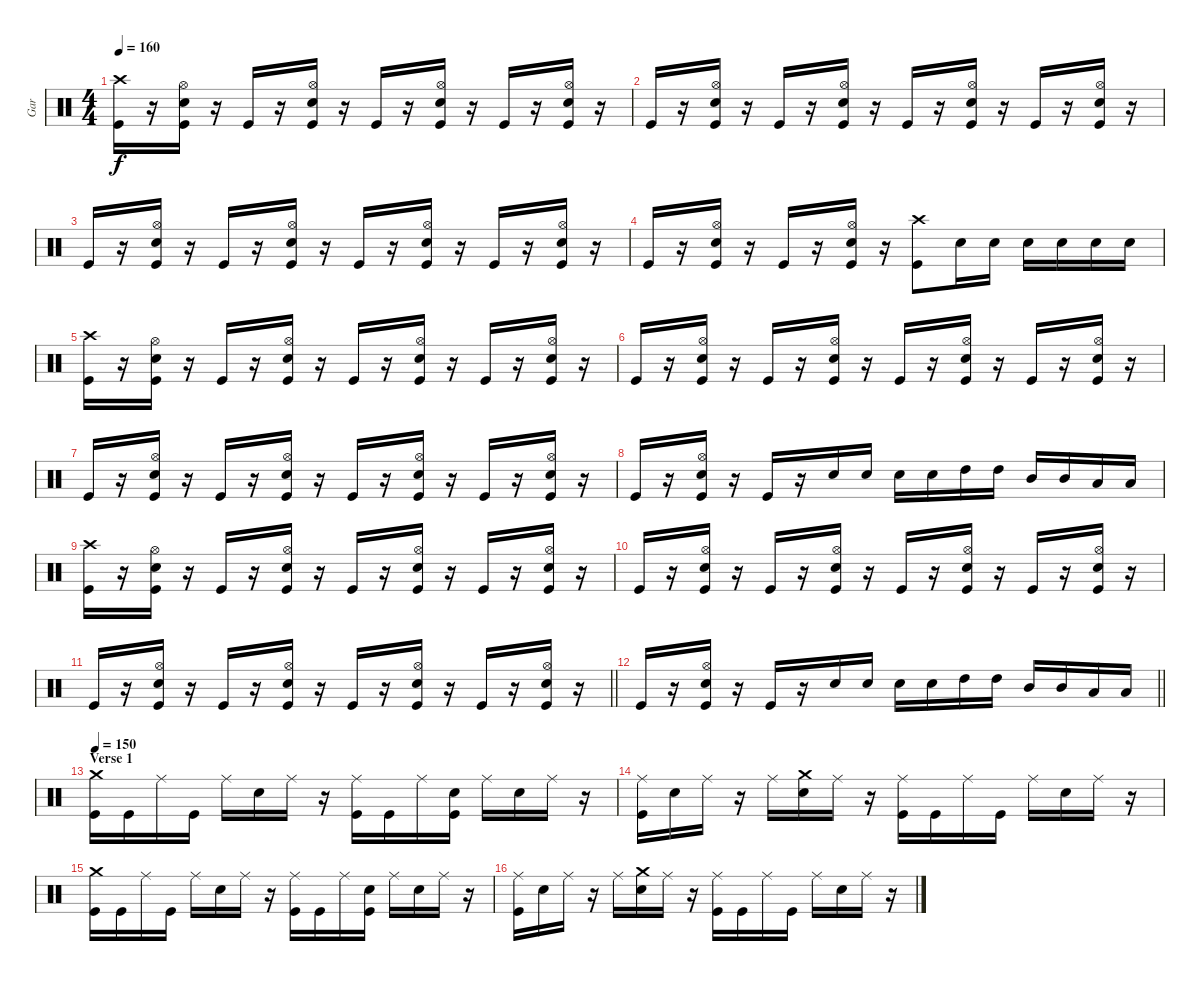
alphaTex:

\track ("Gar" "Gar") {instrument percussion}
\staff {score}
\articulation defaults
\ts (4 4)
\tempo 160
\clef neutral
\ks c
("Crash high (hit)" "Kick (hit)").16{dy f} r.16 ("Hi-Hat (open)" "Snare (hit) 2" "Kick (hit)").16 r.16 "Kick (hit)".16 r.16 ("Hi-Hat (open)" "Snare (hit) 2" "Kick (hit)").16 r.16 "Kick (hit)".16 r.16 ("Hi-Hat (open)" "Snare (hit) 2" "Kick (hit)").16 r.16 "Kick (hit)".16 r.16 ("Hi-Hat (open)" "Snare (hit) 2" "Kick (hit)").16 r.16 |
"Kick (hit)".16 r.16 ("Hi-Hat (open)" "Snare (hit) 2" "Kick (hit)").16 r.16 "Kick (hit)".16 r.16 ("Hi-Hat (open)" "Snare (hit) 2" "Kick (hit)").16 r.16 "Kick (hit)".16 r.16 ("Hi-Hat (open)" "Snare (hit) 2" "Kick (hit)").16 r.16 "Kick (hit)".16 r.16 ("Hi-Hat (open)" "Snare (hit) 2" "Kick (hit)").16 r.16 |
"Kick (hit)".16 r.16 ("Hi-Hat (open)" "Snare (hit) 2" "Kick (hit)").16 r.16 "Kick (hit)".16 r.16 ("Hi-Hat (open)" "Snare (hit) 2" "Kick (hit)").16 r.16 "Kick (hit)".16 r.16 ("Hi-Hat (open)" "Snare (hit) 2" "Kick (hit)").16 r.16 "Kick (hit)".16 r.16 ("Hi-Hat (open)" "Snare (hit) 2" "Kick (hit)").16 r.16 |
"Kick (hit)".16 r.16 ("Hi-Hat (open)" "Snare (hit) 2" "Kick (hit)").16 r.16 "Kick (hit)".16 r.16 ("Hi-Hat (open)" "Snare (hit) 2" "Kick (hit)").16 r.16 ("Crash high (hit)" "Kick (hit)").8 "Snare (hit) 2".16 "Snare (hit) 2".16 "Snare (hit) 2".16 "Snare (hit) 2".16 "Snare (hit) 2".16 "Snare (hit) 2".16 |
("Crash high (hit)" "Kick (hit)").16 r.16 ("Hi-Hat (open)" "Snare (hit) 2" "Kick (hit)").16 r.16 "Kick (hit)".16 r.16 ("Hi-Hat (open)" "Snare (hit) 2" "Kick (hit)").16 r.16 "Kick (hit)".16 r.16 ("Hi-Hat (open)" "Snare (hit) 2" "Kick (hit)").16 r.16 "Kick (hit)".16 r.16 ("Hi-Hat (open)" "Snare (hit) 2" "Kick (hit)").16 r.16 |
"Kick (hit)".16 r.16 ("Hi-Hat (open)" "Snare (hit) 2" "Kick (hit)").16 r.16 "Kick (hit)".16 r.16 ("Hi-Hat (open)" "Snare (hit) 2" "Kick (hit)").16 r.16 "Kick (hit)".16 r.16 ("Hi-Hat (open)" "Snare (hit) 2" "Kick (hit)").16 r.16 "Kick (hit)".16 r.16 ("Hi-Hat (open)" "Snare (hit) 2" "Kick (hit)").16 r.16 |
"Kick (hit)".16 r.16 ("Hi-Hat (open)" "Snare (hit) 2" "Kick (hit)").16 r.16 "Kick (hit)".16 r.16 ("Hi-Hat (open)" "Snare (hit) 2" "Kick (hit)").16 r.16 "Kick (hit)".16 r.16 ("Hi-Hat (open)" "Snare (hit) 2" "Kick (hit)").16 r.16 "Kick (hit)".16 r.16 ("Hi-Hat (open)" "Snare (hit) 2" "Kick (hit)").16 r.16 |
"Kick (hit)".16 r.16 ("Hi-Hat (open)" "Snare (hit) 2" "Kick (hit)").16 r.16 "Kick (hit)".16 r.16 "Snare (hit) 2".16 "Snare (hit) 2".16 "Snare (hit) 2".16 "Snare (hit) 2".16 "High Tom (hit)".16 "High Tom (hit)".16 "Mid Tom (hit)".16 "Mid Tom (hit)".16 "Low Tom (hit)".16 "Low Tom (hit)".16 |
("Crash high (hit)" "Kick (hit)").16 r.16 ("Hi-Hat (open)" "Snare (hit) 2" "Kick (hit)").16 r.16 "Kick (hit)".16 r.16 ("Hi-Hat (open)" "Snare (hit) 2" "Kick (hit)").16 r.16 "Kick (hit)".16 r.16 ("Hi-Hat (open)" "Snare (hit) 2" "Kick (hit)").16 r.16 "Kick (hit)".16 r.16 ("Hi-Hat (open)" "Snare (hit) 2" "Kick (hit)").16 r.16 |
"Kick (hit)".16 r.16 ("Hi-Hat (open)" "Snare (hit) 2" "Kick (hit)").16 r.16 "Kick (hit)".16 r.16 ("Hi-Hat (open)" "Snare (hit) 2" "Kick (hit)").16 r.16 "Kick (hit)".16 r.16 ("Hi-Hat (open)" "Snare (hit) 2" "Kick (hit)").16 r.16 "Kick (hit)".16 r.16 ("Hi-Hat (open)" "Snare (hit) 2" "Kick (hit)").16 r.16 |
\barLineRight lightlight "Kick (hit)".16
r.16 ("Hi-Hat (open)" "Snare (hit) 2" "Kick (hit)").16 r.16 "Kick (hit)".16 r.16 ("Hi-Hat (open)" "Snare (hit) 2" "Kick (hit)").16 r.16 "Kick (hit)".16 r.16 ("Hi-Hat (open)" "Snare (hit) 2" "Kick (hit)").16 r.16 "Kick (hit)".16 r.16 ("Hi-Hat (open)" "Snare (hit) 2" "Kick (hit)").16 r.16 |
\barLineRight lightlight "Kick (hit)".16
r.16 ("Hi-Hat (open)" "Snare (hit) 2" "Kick (hit)").16 r.16 "Kick (hit)".16 r.16 "Snare (hit) 2".16 "Snare (hit) 2".16 "Snare (hit) 2".16 "Snare (hit) 2".16 "High Tom (hit)".16 "High Tom (hit)".16 "Mid Tom (hit)".16 "Mid Tom (hit)".16 "Low Tom (hit)".16 "Low Tom (hit)".16 |
\section ("" "Verse 1")
\tempo 150
("Crash medium (hit)" "Kick (hit)").16 "Kick (hit)".16 "Ride (middle)".16 "Kick (hit)".16 "Ride (middle)".16 "Snare (hit) 2".16 "Ride (middle)".16 r.16 ("Ride (middle)" "Kick (hit)").16 "Kick (hit)".16 "Ride (middle)".16 ("Snare (hit) 2" "Kick (hit)").16 "Ride (middle)".16 "Snare (hit) 2".16 "Ride (middle)".16 r.16 |
("Ride (middle)" "Kick (hit)").16 "Snare (hit) 2".16 "Ride (middle)".16 r.16 "Ride (middle)".16 ("Crash medium (hit)" "Snare (hit) 2").16 "Ride (middle)".16 r.16 ("Ride (middle)" "Kick (hit)").16 "Kick (hit)".16 "Ride (middle)".16 "Kick (hit)".16 "Ride (middle)".16 "Snare (hit) 2".16 "Ride (middle)".16 r.16 |
("Crash medium (hit)" "Kick (hit)").16 "Kick (hit)".16 "Ride (middle)".16 "Kick (hit)".16 "Ride (middle)".16 "Snare (hit) 2".16 "Ride (middle)".16 r.16 ("Ride (middle)" "Kick (hit)").16 "Kick (hit)".16 "Ride (middle)".16 ("Snare (hit) 2" "Kick (hit)").16 "Ride (middle)".16 "Snare (hit) 2".16 "Ride (middle)".16 r.16 |
("Ride (middle)" "Kick (hit)").16 "Snare (hit) 2".16 "Ride (middle)".16 r.16 "Ride (middle)".16 ("Crash medium (hit)" "Snare (hit) 2").16 "Ride (middle)".16 r.16 ("Ride (middle)" "Kick (hit)").16 "Kick (hit)".16 "Ride (middle)".16 "Kick (hit)".16 "Ride (middle)".16 "Snare (hit) 2".16 "Ride (middle)".16 r.16
